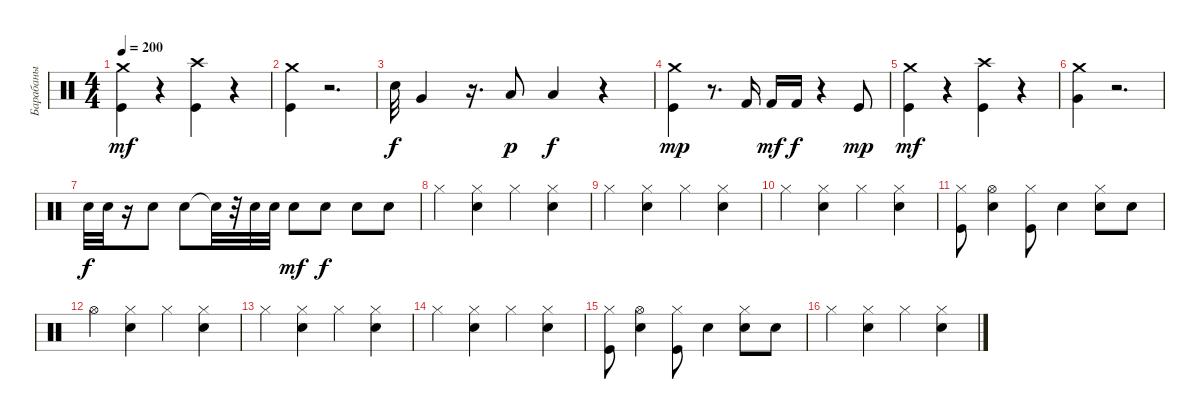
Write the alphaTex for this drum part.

\track ("Барабаны" "Барабаны") {instrument percussion}
\staff {score}
\articulation defaults
\ts (4 4)
\tempo 200
\clef neutral
\ks c
("Kick (hit)" "Crash medium (hit)").4{dy mf} r.4 ("Crash high (hit)" "Kick (hit)").4 r.4 |
("Crash medium (hit)" "Kick (hit)").4 r.2{d} |
"Snare (hit) 2".32{dy f} "Very Low Tom (hit)".4 r.16{d} "Low Tom (hit)".8{dy p} "Low Floor Tom (hit)".4{dy f} r.4 |
("Crash medium (hit)" "Kick (hit)").4{dy mp} r.8{d} "Kick (hit) 2".16 "Kick (hit) 2".16{dy mf} "Kick (hit) 2".16{dy f} r.4 "Kick (hit)".8{dy mp} |
("Kick (hit)" "Crash medium (hit)").4{dy mf} r.4 ("Crash high (hit)" "Kick (hit)").4 r.4 |
("Crash medium (hit)" "Very Low Tom (hit)").4 r.2{d} |
"Electric Snare (hit)".32{dy f} "Electric Snare (hit)".32 r.16 "Electric Snare (hit)".8 "Electric Snare (hit)".8 "Snare (hit)"{t}.32 r.32 "Electric Snare (hit)".32 "Electric Snare (hit)".32 "Electric Snare (hit)".8{dy mf} "Electric Snare (hit)".8{dy f} "Electric Snare (hit)".8 "Electric Snare (hit)".8 |
"Hi-Hat (closed)".4 ("Snare (hit) 2" "Hi-Hat (closed)").4 "Hi-Hat (closed)".4 ("Snare (hit) 2" "Hi-Hat (closed)").4 |
"Hi-Hat (closed)".4 ("Snare (hit) 2" "Hi-Hat (closed)").4 "Hi-Hat (closed)".4 ("Snare (hit) 2" "Hi-Hat (closed)").4 |
"Hi-Hat (closed)".4 ("Snare (hit) 2" "Hi-Hat (closed)").4 "Hi-Hat (closed)".4 ("Snare (hit) 2" "Hi-Hat (closed)").4 |
("Kick (hit)" "Hi-Hat (closed)").8 ("Hi-Hat (open)" "Electric Snare (hit)").4 ("Kick (hit)" "Hi-Hat (closed)").8 "Electric Snare (hit)".4 ("Electric Snare (hit)" "Hi-Hat (closed)").8 "Electric Snare (hit)".8 |
"Hi-Hat (open)".4 ("Snare (hit) 2" "Hi-Hat (closed)").4 "Hi-Hat (closed)".4 ("Snare (hit) 2" "Hi-Hat (closed)").4 |
"Hi-Hat (closed)".4 ("Snare (hit) 2" "Hi-Hat (closed)").4 "Hi-Hat (closed)".4 ("Snare (hit) 2" "Hi-Hat (closed)").4 |
"Hi-Hat (closed)".4 ("Snare (hit) 2" "Hi-Hat (closed)").4 "Hi-Hat (closed)".4 ("Snare (hit) 2" "Hi-Hat (closed)").4 |
("Kick (hit)" "Hi-Hat (closed)").8 ("Hi-Hat (open)" "Electric Snare (hit)").4 ("Kick (hit)" "Hi-Hat (closed)").8 "Electric Snare (hit)".4 ("Electric Snare (hit)" "Hi-Hat (closed)").8 "Electric Snare (hit)".8 |
"Hi-Hat (closed)".4 ("Snare (hit) 2" "Hi-Hat (closed)").4 "Hi-Hat (closed)".4 ("Snare (hit) 2" "Hi-Hat (closed)").4
